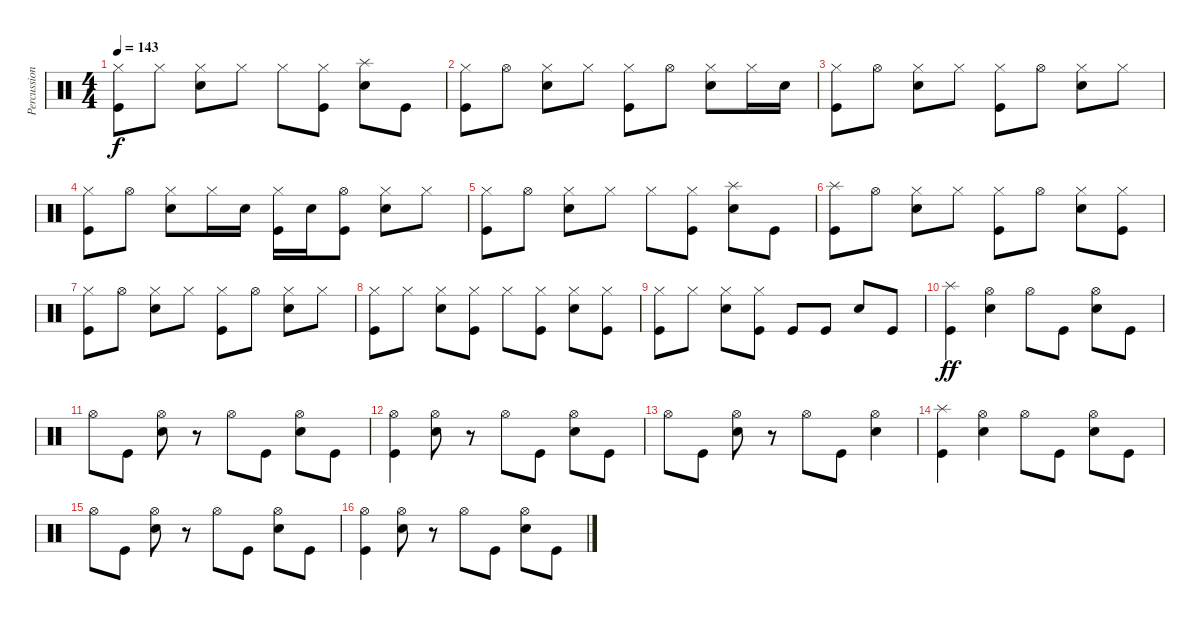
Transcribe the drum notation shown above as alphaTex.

\track ("Percussion" "Percussion") {instrument percussion}
\staff {score}
\articulation defaults
\ts (4 4)
\tempo 143
\clef neutral
\ks c
("Hi-Hat (closed)" "Kick (hit)").8{dy f} "Hi-Hat (closed)".8 ("Hi-Hat (closed)" "Snare (hit) 2").8 "Hi-Hat (closed)".8 "Hi-Hat (closed)".8 ("Hi-Hat (closed)" "Kick (hit)").8 ("Splash (hit)" "Snare (hit) 2").8 "Kick (hit)".8 |
("Hi-Hat (closed)" "Kick (hit)").8 "Hi-Hat (open)".8 ("Hi-Hat (closed)" "Snare (hit) 2").8 "Hi-Hat (closed)".8 ("Hi-Hat (closed)" "Kick (hit)").8 "Hi-Hat (open)".8 ("Hi-Hat (closed)" "Snare (hit) 2").8 "Hi-Hat (closed)".16 "Snare (hit) 2".16 |
("Hi-Hat (closed)" "Kick (hit)").8 "Hi-Hat (open)".8 ("Hi-Hat (closed)" "Snare (hit) 2").8 "Hi-Hat (closed)".8 ("Hi-Hat (closed)" "Kick (hit)").8 "Hi-Hat (open)".8 ("Hi-Hat (closed)" "Snare (hit) 2").8 "Hi-Hat (closed)".8 |
("Hi-Hat (closed)" "Kick (hit)").8 "Hi-Hat (open)".8 ("Hi-Hat (closed)" "Snare (hit) 2").8 "Hi-Hat (closed)".16 "Snare (hit) 2".16 ("Hi-Hat (closed)" "Kick (hit)").16 "Snare (hit) 2".16 ("Hi-Hat (open)" "Kick (hit)").8 ("Hi-Hat (closed)" "Snare (hit) 2").8 "Hi-Hat (closed)".8 |
("Hi-Hat (closed)" "Kick (hit)").8 "Hi-Hat (open)".8 ("Hi-Hat (closed)" "Snare (hit) 2").8 "Hi-Hat (closed)".8 "Hi-Hat (closed)".8 ("Hi-Hat (closed)" "Kick (hit)").8 ("Splash (hit)" "Snare (hit) 2").8 "Kick (hit)".8 |
("Splash (hit)" "Kick (hit)").8 "Hi-Hat (open)".8 ("Hi-Hat (closed)" "Snare (hit) 2").8 "Hi-Hat (closed)".8 ("Hi-Hat (closed)" "Kick (hit)").8 "Hi-Hat (open)".8 ("Hi-Hat (closed)" "Snare (hit) 2").8 ("Hi-Hat (closed)" "Kick (hit)").8 |
("Hi-Hat (closed)" "Kick (hit)").8 "Hi-Hat (open)".8 ("Hi-Hat (closed)" "Snare (hit) 2").8 "Hi-Hat (closed)".8 ("Hi-Hat (closed)" "Kick (hit)").8 "Hi-Hat (open)".8 ("Hi-Hat (closed)" "Snare (hit) 2").8 "Hi-Hat (closed)".8 |
("Hi-Hat (closed)" "Kick (hit)").8 "Hi-Hat (closed)".8 ("Hi-Hat (closed)" "Snare (hit) 2").8 ("Hi-Hat (closed)" "Kick (hit)").8 "Hi-Hat (closed)".8 ("Hi-Hat (closed)" "Kick (hit)").8 ("Hi-Hat (closed)" "Snare (hit) 2").8 ("Hi-Hat (closed)" "Kick (hit)").8 |
("Hi-Hat (closed)" "Kick (hit)").8 "Hi-Hat (closed)".8 ("Hi-Hat (closed)" "Snare (hit) 2").8 ("Hi-Hat (closed)" "Kick (hit)").8 "Kick (hit)".8 "Kick (hit)".8 "Snare (hit) 2".8 "Kick (hit)".8 |
("Splash (hit)" "Kick (hit)").4{dy ff} ("Hi-Hat (open)" "Snare (hit) 2").4 "Hi-Hat (open)".8 "Kick (hit)".8 ("Hi-Hat (open)" "Snare (hit) 2").8 "Kick (hit)".8 |
"Hi-Hat (open)".8 "Kick (hit)".8 ("Hi-Hat (open)" "Snare (hit) 2").8 r.8 "Hi-Hat (open)".8 "Kick (hit)".8 ("Hi-Hat (open)" "Snare (hit) 2").8 "Kick (hit)".8 |
("Hi-Hat (open)" "Kick (hit)").4 ("Hi-Hat (open)" "Snare (hit) 2").8 r.8 "Hi-Hat (open)".8 "Kick (hit)".8 ("Hi-Hat (open)" "Snare (hit) 2").8 "Kick (hit)".8 |
"Hi-Hat (open)".8 "Kick (hit)".8 ("Hi-Hat (open)" "Snare (hit) 2").8 r.8 "Hi-Hat (open)".8 "Kick (hit)".8 ("Hi-Hat (open)" "Snare (hit) 2").4 |
("Splash (hit)" "Kick (hit)").4 ("Hi-Hat (open)" "Snare (hit) 2").4 "Hi-Hat (open)".8 "Kick (hit)".8 ("Hi-Hat (open)" "Snare (hit) 2").8 "Kick (hit)".8 |
"Hi-Hat (open)".8 "Kick (hit)".8 ("Hi-Hat (open)" "Snare (hit) 2").8 r.8 "Hi-Hat (open)".8 "Kick (hit)".8 ("Hi-Hat (open)" "Snare (hit) 2").8 "Kick (hit)".8 |
("Hi-Hat (open)" "Kick (hit)").4 ("Hi-Hat (open)" "Snare (hit) 2").8 r.8 "Hi-Hat (open)".8 "Kick (hit)".8 ("Hi-Hat (open)" "Snare (hit) 2").8 "Kick (hit)".8
